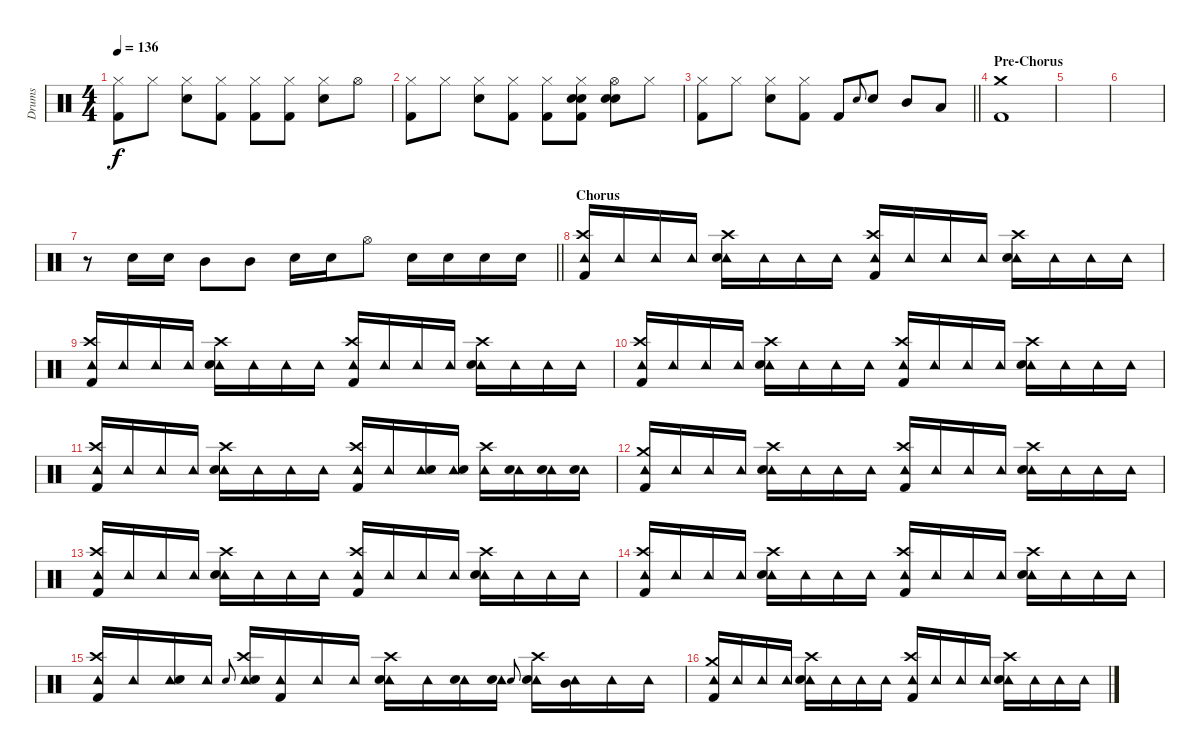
\track ("Drums" "Drums") {instrument percussion}
\staff {score}
\articulation defaults
\ts (4 4)
\tempo 136
\clef neutral
\ks c
("Hi-Hat (closed)" "Kick (hit) 2").8{dy f} "Hi-Hat (closed)".8 ("Hi-Hat (closed)" "Electric Snare (hit)").8 ("Hi-Hat (closed)" "Kick (hit) 2").8 ("Hi-Hat (closed)" "Kick (hit) 2").8 ("Hi-Hat (closed)" "Kick (hit) 2").8 ("Hi-Hat (closed)" "Electric Snare (hit)").8 "Hi-Hat (open)".8 |
("Hi-Hat (closed)" "Kick (hit) 2").8 "Hi-Hat (closed)".8 ("Hi-Hat (closed)" "Electric Snare (hit)").8 ("Hi-Hat (closed)" "Kick (hit) 2").8 ("Hi-Hat (closed)" "Kick (hit) 2").8 ("Hand Clap (hit)" "Hi-Hat (closed)" "Electric Snare (hit)" "Kick (hit) 2").8 ("Hand Clap (hit)" "Hi-Hat (open)" "Electric Snare (hit)").8 "Hi-Hat (closed)".8 |
\barLineRight lightlight
("Hi-Hat (closed)" "Kick (hit) 2").8 "Hi-Hat (closed)".8 ("Hi-Hat (closed)" "Electric Snare (hit)").8 ("Hi-Hat (closed)" "Kick (hit) 2").8 "Kick (hit) 2".8 "Electric Snare (hit)".8{gr onbeat} "Electric Snare (hit)".8 "Mid Tom (hit)".8 "Low Tom (hit)".8 |
\section ("" "Pre-Chorus")
("Crash medium (hit)" "Kick (hit) 2").1 |
|
|
\barLineRight lightlight
r.8 "Electric Snare (hit)".16 "Electric Snare (hit)".16 "Mid Tom (hit)".8 "Mid Tom (hit)".8 "Electric Snare (hit)".16 "Electric Snare (hit)".16 "Hi-Hat (open)".8 "Electric Snare (hit)".16 "Electric Snare (hit)".16 "Electric Snare (hit)".16 "Electric Snare (hit)".16 |
\section ("" "Chorus")
("Crash high (hit)" "Tambourine (hit)" "Kick (hit) 2").16 "Tambourine (hit)".16 "Tambourine (hit)".16 "Tambourine (hit)".16 ("Crash high (hit)" "Tambourine (hit)" "Electric Snare (hit)").16 "Tambourine (hit)".16 "Tambourine (hit)".16 "Tambourine (hit)".16 ("Crash high (hit)" "Tambourine (hit)" "Kick (hit) 2").16 "Tambourine (hit)".16 "Tambourine (hit)".16 "Tambourine (hit)".16 ("Crash high (hit)" "Tambourine (hit)" "Electric Snare (hit)").16 "Tambourine (hit)".16 "Tambourine (hit)".16 "Tambourine (hit)".16 |
("Crash high (hit)" "Tambourine (hit)" "Kick (hit) 2").16 "Tambourine (hit)".16 "Tambourine (hit)".16 "Tambourine (hit)".16 ("Crash high (hit)" "Tambourine (hit)" "Electric Snare (hit)").16 "Tambourine (hit)".16 "Tambourine (hit)".16 "Tambourine (hit)".16 ("Crash high (hit)" "Tambourine (hit)" "Kick (hit) 2").16 "Tambourine (hit)".16 "Tambourine (hit)".16 "Tambourine (hit)".16 ("Crash high (hit)" "Tambourine (hit)" "Electric Snare (hit)").16 "Tambourine (hit)".16 "Tambourine (hit)".16 "Tambourine (hit)".16 |
("Crash high (hit)" "Tambourine (hit)" "Kick (hit) 2").16 "Tambourine (hit)".16 "Tambourine (hit)".16 "Tambourine (hit)".16 ("Crash high (hit)" "Tambourine (hit)" "Electric Snare (hit)").16 "Tambourine (hit)".16 "Tambourine (hit)".16 "Tambourine (hit)".16 ("Crash high (hit)" "Tambourine (hit)" "Kick (hit) 2").16 "Tambourine (hit)".16 "Tambourine (hit)".16 "Tambourine (hit)".16 ("Crash high (hit)" "Tambourine (hit)" "Electric Snare (hit)").16 "Tambourine (hit)".16 "Tambourine (hit)".16 "Tambourine (hit)".16 |
("Crash high (hit)" "Tambourine (hit)" "Kick (hit) 2").16 "Tambourine (hit)".16 "Tambourine (hit)".16 "Tambourine (hit)".16 ("Crash high (hit)" "Tambourine (hit)" "Electric Snare (hit)").16 "Tambourine (hit)".16 "Tambourine (hit)".16 "Tambourine (hit)".16 ("Crash high (hit)" "Tambourine (hit)" "Kick (hit) 2").16 "Tambourine (hit)".16 ("Tambourine (hit)" "Electric Snare (hit)").16 ("Tambourine (hit)" "Electric Snare (hit)").16 ("Crash high (hit)" "Tambourine (hit)").16 ("Tambourine (hit)" "Electric Snare (hit)").16 ("Tambourine (hit)" "Electric Snare (hit)").16 ("Tambourine (hit)" "Electric Snare (hit)").16 |
("Crash medium (hit)" "Tambourine (hit)" "Kick (hit) 2").16 "Tambourine (hit)".16 "Tambourine (hit)".16 "Tambourine (hit)".16 ("Crash high (hit)" "Tambourine (hit)" "Electric Snare (hit)").16 "Tambourine (hit)".16 "Tambourine (hit)".16 "Tambourine (hit)".16 ("Crash high (hit)" "Tambourine (hit)" "Kick (hit) 2").16 "Tambourine (hit)".16 "Tambourine (hit)".16 "Tambourine (hit)".16 ("Crash high (hit)" "Tambourine (hit)" "Electric Snare (hit)").16 "Tambourine (hit)".16 "Tambourine (hit)".16 "Tambourine (hit)".16 |
("Crash high (hit)" "Tambourine (hit)" "Kick (hit) 2").16 "Tambourine (hit)".16 "Tambourine (hit)".16 "Tambourine (hit)".16 ("Crash high (hit)" "Tambourine (hit)" "Electric Snare (hit)").16 "Tambourine (hit)".16 "Tambourine (hit)".16 "Tambourine (hit)".16 ("Crash high (hit)" "Tambourine (hit)" "Kick (hit) 2").16 "Tambourine (hit)".16 "Tambourine (hit)".16 "Tambourine (hit)".16 ("Crash high (hit)" "Tambourine (hit)" "Electric Snare (hit)").16 "Tambourine (hit)".16 "Tambourine (hit)".16 "Tambourine (hit)".16 |
("Crash high (hit)" "Tambourine (hit)" "Kick (hit) 2").16 "Tambourine (hit)".16 "Tambourine (hit)".16 "Tambourine (hit)".16 ("Crash high (hit)" "Tambourine (hit)" "Electric Snare (hit)").16 "Tambourine (hit)".16 "Tambourine (hit)".16 "Tambourine (hit)".16 ("Crash high (hit)" "Tambourine (hit)" "Kick (hit) 2").16 "Tambourine (hit)".16 "Tambourine (hit)".16 "Tambourine (hit)".16 ("Crash high (hit)" "Tambourine (hit)" "Electric Snare (hit)").16 "Tambourine (hit)".16 "Tambourine (hit)".16 "Tambourine (hit)".16 |
("Crash high (hit)" "Tambourine (hit)" "Kick (hit) 2").16 "Tambourine (hit)".16 ("Tambourine (hit)" "Electric Snare (hit)").16 "Tambourine (hit)".16 "Electric Snare (hit)".8{gr onbeat} ("Crash high (hit)" "Tambourine (hit)" "Electric Snare (hit)").16 ("Tambourine (hit)" "Kick (hit) 2").16 "Tambourine (hit)".16 "Tambourine (hit)".16 ("Crash high (hit)" "Tambourine (hit)" "Electric Snare (hit)").16 "Tambourine (hit)".16 ("Tambourine (hit)" "Electric Snare (hit)").16 ("Tambourine (hit)" "Electric Snare (hit)").16 "Electric Snare (hit)".8{gr onbeat} ("Crash high (hit)" "Tambourine (hit)" "Electric Snare (hit)").16 ("Tambourine (hit)" "Mid Tom (hit)").16 "Tambourine (hit)".16 "Tambourine (hit)".16 |
("Crash medium (hit)" "Tambourine (hit)" "Kick (hit) 2").16 "Tambourine (hit)".16 "Tambourine (hit)".16 "Tambourine (hit)".16 ("Crash high (hit)" "Tambourine (hit)" "Electric Snare (hit)").16 "Tambourine (hit)".16 "Tambourine (hit)".16 "Tambourine (hit)".16 ("Crash high (hit)" "Tambourine (hit)" "Kick (hit) 2").16 "Tambourine (hit)".16 "Tambourine (hit)".16 "Tambourine (hit)".16 ("Crash high (hit)" "Tambourine (hit)" "Electric Snare (hit)").16 "Tambourine (hit)".16 "Tambourine (hit)".16 "Tambourine (hit)".16
